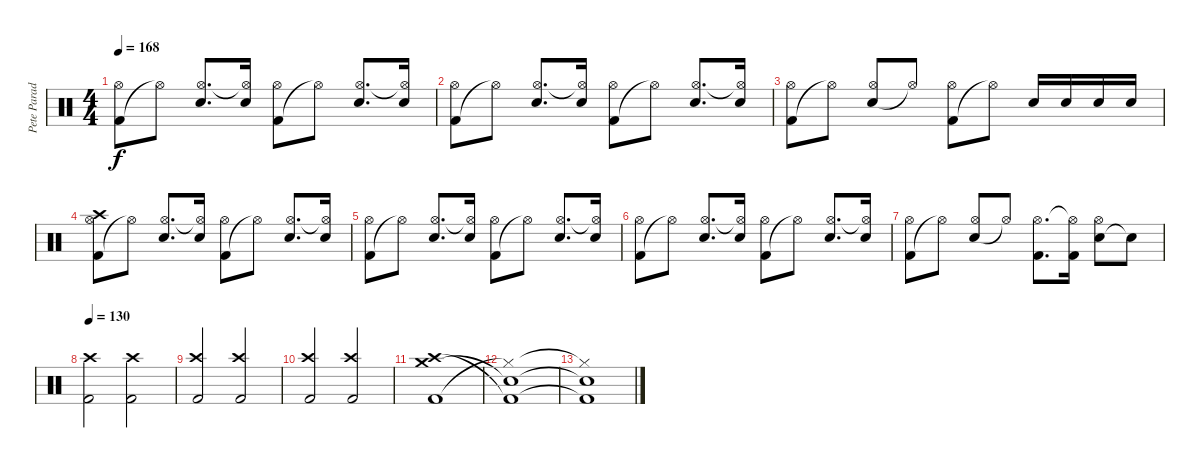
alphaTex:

\track ("Pete Parada" "Pete Parad") {instrument percussion}
\staff {score}
\articulation defaults
\ts (4 4)
\tempo 168
\clef neutral
\ks c
("Kick (hit) 2" "Hi-Hat (open)").8{dy f} "Hi-Hat (open)"{t}.8 ("Electric Snare (hit)" "Hi-Hat (open)").8{d beam Up} ("Electric Snare (hit)" "Hi-Hat (open)"{t}).16{beam Up} ("Kick (hit) 2" "Hi-Hat (open)").8 "Hi-Hat (open)"{t}.8 ("Electric Snare (hit)" "Hi-Hat (open)").8{d beam Up} ("Electric Snare (hit)" "Hi-Hat (open)"{t}).16{beam Up} |
("Kick (hit) 2" "Hi-Hat (open)").8 "Hi-Hat (open)"{t}.8 ("Electric Snare (hit)" "Hi-Hat (open)").8{d beam Up} ("Electric Snare (hit)" "Hi-Hat (open)"{t}).16{beam Up} ("Kick (hit) 2" "Hi-Hat (open)").8 "Hi-Hat (open)"{t}.8 ("Electric Snare (hit)" "Hi-Hat (open)").8{d beam Up} ("Electric Snare (hit)" "Hi-Hat (open)"{t}).16{beam Up} |
("Kick (hit) 2" "Hi-Hat (open)").8 "Hi-Hat (open)"{t}.8 ("Electric Snare (hit)" "Hi-Hat (open)").8{beam Up} "Hi-Hat (open)"{t}.8{beam Up} ("Kick (hit) 2" "Hi-Hat (open)").8 "Hi-Hat (open)"{t}.8 "Electric Snare (hit)".16{beam Up} "Electric Snare (hit)".16{beam Up} "Electric Snare (hit)".16{beam Up} "Electric Snare (hit)".16{beam Up} |
("Kick (hit) 2" "Hi-Hat (open)" "Crash high (hit)").8 "Hi-Hat (open)"{t}.8 ("Electric Snare (hit)" "Hi-Hat (open)").8{d beam Up} ("Electric Snare (hit)" "Hi-Hat (open)"{t}).16{beam Up} ("Kick (hit) 2" "Hi-Hat (open)").8 "Hi-Hat (open)"{t}.8 ("Electric Snare (hit)" "Hi-Hat (open)").8{d beam Up} ("Electric Snare (hit)" "Hi-Hat (open)"{t}).16{beam Up} |
("Kick (hit) 2" "Hi-Hat (open)").8 "Hi-Hat (open)"{t}.8 ("Electric Snare (hit)" "Hi-Hat (open)").8{d beam Up} ("Electric Snare (hit)" "Hi-Hat (open)"{t}).16{beam Up} ("Kick (hit) 2" "Hi-Hat (open)").8 "Hi-Hat (open)"{t}.8 ("Electric Snare (hit)" "Hi-Hat (open)").8{d beam Up} ("Electric Snare (hit)" "Hi-Hat (open)"{t}).16{beam Up} |
("Kick (hit) 2" "Hi-Hat (open)").8 "Hi-Hat (open)"{t}.8 ("Electric Snare (hit)" "Hi-Hat (open)").8{d beam Up} ("Electric Snare (hit)" "Hi-Hat (open)"{t}).16{beam Up} ("Kick (hit) 2" "Hi-Hat (open)").8 "Hi-Hat (open)"{t}.8 ("Electric Snare (hit)" "Hi-Hat (open)").8{d beam Up} ("Electric Snare (hit)" "Hi-Hat (open)"{t}).16{beam Up} |
("Kick (hit) 2" "Hi-Hat (open)").8 "Hi-Hat (open)"{t}.8 ("Electric Snare (hit)" "Hi-Hat (open)").8{beam Up} "Hi-Hat (open)"{t}.8{beam Up} ("Kick (hit) 2" "Hi-Hat (open)").8{d} ("Kick (hit) 2" "Hi-Hat (open)"{t}).16 ("Electric Snare (hit)" "Hi-Hat (open)").8 "Snare (hit)"{t}.8 |
\tempo 130
("Kick (hit) 2" "Crash high (hit)").2 ("Kick (hit) 2" "Crash high (hit)").2 |
("Kick (hit) 2" "Crash high (hit)").2{beam Up} ("Kick (hit) 2" "Crash high (hit)").2{beam Up} |
("Kick (hit) 2" "Crash high (hit)").2{beam Up} ("Kick (hit) 2" "Crash high (hit)").2{beam Up} |
("Kick (hit) 2" "Crash medium (hit)" "Crash high (hit)").1 |
("Hi-Hat (closed)"{t} "Snare (hit)"{t} "Kick (hit) 2"{t}).1 |
("Hi-Hat (closed)"{t} "Snare (hit)"{t} "Kick (hit) 2"{t}).1
